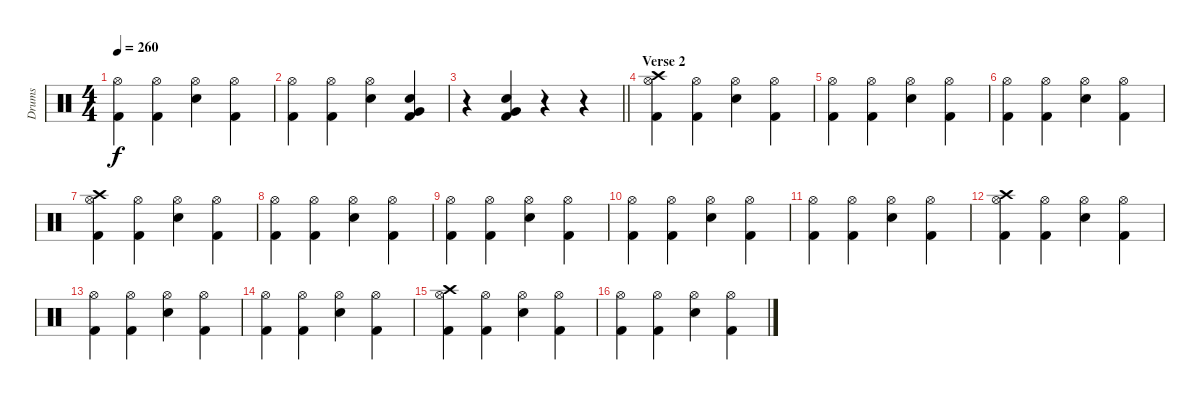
\track ("Drums" "Drums") {instrument percussion bank 2}
\staff {score}
\articulation defaults
\ts (4 4)
\tempo 260
\clef neutral
\ks c
("Kick (hit) 2" "Hi-Hat (open)").4{dy f} ("Kick (hit) 2" "Hi-Hat (open)").4 ("Snare (hit) 2" "Hi-Hat (open)").4 ("Kick (hit) 2" "Hi-Hat (open)").4 |
("Kick (hit) 2" "Hi-Hat (open)").4 ("Kick (hit) 2" "Hi-Hat (open)").4 ("Snare (hit) 2" "Hi-Hat (open)").4 ("Kick (hit) 2" "Snare (hit) 2" "Very Low Tom (hit)").4 |
\barLineRight lightlight
r.4 ("Kick (hit) 2" "Snare (hit) 2" "Very Low Tom (hit)").4 r.4 r.4 |
\section ("" "Verse 2")
("Kick (hit) 2" "Hi-Hat (open)" "Crash high (hit)").4 ("Kick (hit) 2" "Hi-Hat (open)").4 ("Snare (hit) 2" "Hi-Hat (open)").4 ("Kick (hit) 2" "Hi-Hat (open)").4 |
("Kick (hit) 2" "Hi-Hat (open)").4 ("Kick (hit) 2" "Hi-Hat (open)").4 ("Snare (hit) 2" "Hi-Hat (open)").4 ("Kick (hit) 2" "Hi-Hat (open)").4 |
("Kick (hit) 2" "Hi-Hat (open)").4 ("Kick (hit) 2" "Hi-Hat (open)").4 ("Snare (hit) 2" "Hi-Hat (open)").4 ("Kick (hit) 2" "Hi-Hat (open)").4 |
("Kick (hit) 2" "Hi-Hat (open)" "Crash high (hit)").4 ("Kick (hit) 2" "Hi-Hat (open)").4 ("Snare (hit) 2" "Hi-Hat (open)").4 ("Kick (hit) 2" "Hi-Hat (open)").4 |
("Kick (hit) 2" "Hi-Hat (open)").4 ("Kick (hit) 2" "Hi-Hat (open)").4 ("Snare (hit) 2" "Hi-Hat (open)").4 ("Kick (hit) 2" "Hi-Hat (open)").4 |
("Kick (hit) 2" "Hi-Hat (open)").4 ("Kick (hit) 2" "Hi-Hat (open)").4 ("Snare (hit) 2" "Hi-Hat (open)").4 ("Kick (hit) 2" "Hi-Hat (open)").4 |
("Kick (hit) 2" "Hi-Hat (open)").4 ("Kick (hit) 2" "Hi-Hat (open)").4 ("Snare (hit) 2" "Hi-Hat (open)").4 ("Kick (hit) 2" "Hi-Hat (open)").4 |
("Kick (hit) 2" "Hi-Hat (open)").4 ("Kick (hit) 2" "Hi-Hat (open)").4 ("Snare (hit) 2" "Hi-Hat (open)").4 ("Kick (hit) 2" "Hi-Hat (open)").4 |
("Kick (hit) 2" "Hi-Hat (open)" "Crash high (hit)").4 ("Kick (hit) 2" "Hi-Hat (open)").4 ("Snare (hit) 2" "Hi-Hat (open)").4 ("Kick (hit) 2" "Hi-Hat (open)").4 |
("Kick (hit) 2" "Hi-Hat (open)").4 ("Kick (hit) 2" "Hi-Hat (open)").4 ("Snare (hit) 2" "Hi-Hat (open)").4 ("Kick (hit) 2" "Hi-Hat (open)").4 |
("Kick (hit) 2" "Hi-Hat (open)").4 ("Kick (hit) 2" "Hi-Hat (open)").4 ("Snare (hit) 2" "Hi-Hat (open)").4 ("Kick (hit) 2" "Hi-Hat (open)").4 |
("Kick (hit) 2" "Hi-Hat (open)" "Crash high (hit)").4 ("Kick (hit) 2" "Hi-Hat (open)").4 ("Snare (hit) 2" "Hi-Hat (open)").4 ("Kick (hit) 2" "Hi-Hat (open)").4 |
("Kick (hit) 2" "Hi-Hat (open)").4 ("Kick (hit) 2" "Hi-Hat (open)").4 ("Snare (hit) 2" "Hi-Hat (open)").4 ("Kick (hit) 2" "Hi-Hat (open)").4
